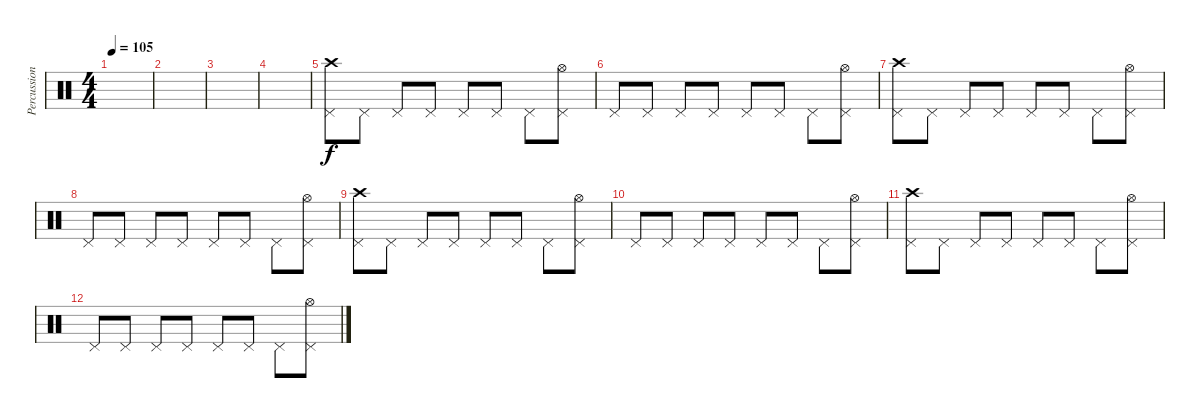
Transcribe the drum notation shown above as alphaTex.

\track ("Percussion" "Percussion") {instrument percussion}
\staff {score}
\articulation defaults
\ts (4 4)
\tempo 105
\clef neutral
\ks c
|
|
|
|
("Pedal Hi-Hat (hit)" "Crash high (hit)").8 "Pedal Hi-Hat (hit)".8 "Pedal Hi-Hat (hit)".8 "Pedal Hi-Hat (hit)".8 "Pedal Hi-Hat (hit)".8 "Pedal Hi-Hat (hit)".8 "Pedal Hi-Hat (hit)".8 ("Pedal Hi-Hat (hit)" "Hi-Hat (open)").8 |
"Pedal Hi-Hat (hit)".8 "Pedal Hi-Hat (hit)".8 "Pedal Hi-Hat (hit)".8 "Pedal Hi-Hat (hit)".8 "Pedal Hi-Hat (hit)".8 "Pedal Hi-Hat (hit)".8 "Pedal Hi-Hat (hit)".8 ("Pedal Hi-Hat (hit)" "Hi-Hat (open)").8 |
("Pedal Hi-Hat (hit)" "Crash high (hit)").8 "Pedal Hi-Hat (hit)".8 "Pedal Hi-Hat (hit)".8 "Pedal Hi-Hat (hit)".8 "Pedal Hi-Hat (hit)".8 "Pedal Hi-Hat (hit)".8 "Pedal Hi-Hat (hit)".8 ("Pedal Hi-Hat (hit)" "Hi-Hat (open)").8 |
"Pedal Hi-Hat (hit)".8 "Pedal Hi-Hat (hit)".8 "Pedal Hi-Hat (hit)".8 "Pedal Hi-Hat (hit)".8 "Pedal Hi-Hat (hit)".8 "Pedal Hi-Hat (hit)".8 "Pedal Hi-Hat (hit)".8 ("Pedal Hi-Hat (hit)" "Hi-Hat (open)").8 |
("Pedal Hi-Hat (hit)" "Crash high (hit)").8 "Pedal Hi-Hat (hit)".8 "Pedal Hi-Hat (hit)".8 "Pedal Hi-Hat (hit)".8 "Pedal Hi-Hat (hit)".8 "Pedal Hi-Hat (hit)".8 "Pedal Hi-Hat (hit)".8 ("Pedal Hi-Hat (hit)" "Hi-Hat (open)").8 |
"Pedal Hi-Hat (hit)".8 "Pedal Hi-Hat (hit)".8 "Pedal Hi-Hat (hit)".8 "Pedal Hi-Hat (hit)".8 "Pedal Hi-Hat (hit)".8 "Pedal Hi-Hat (hit)".8 "Pedal Hi-Hat (hit)".8 ("Pedal Hi-Hat (hit)" "Hi-Hat (open)").8 |
("Pedal Hi-Hat (hit)" "Crash high (hit)").8 "Pedal Hi-Hat (hit)".8 "Pedal Hi-Hat (hit)".8 "Pedal Hi-Hat (hit)".8 "Pedal Hi-Hat (hit)".8 "Pedal Hi-Hat (hit)".8 "Pedal Hi-Hat (hit)".8 ("Pedal Hi-Hat (hit)" "Hi-Hat (open)").8 |
"Pedal Hi-Hat (hit)".8 "Pedal Hi-Hat (hit)".8 "Pedal Hi-Hat (hit)".8 "Pedal Hi-Hat (hit)".8 "Pedal Hi-Hat (hit)".8 "Pedal Hi-Hat (hit)".8 "Pedal Hi-Hat (hit)".8 ("Pedal Hi-Hat (hit)" "Hi-Hat (open)").8
